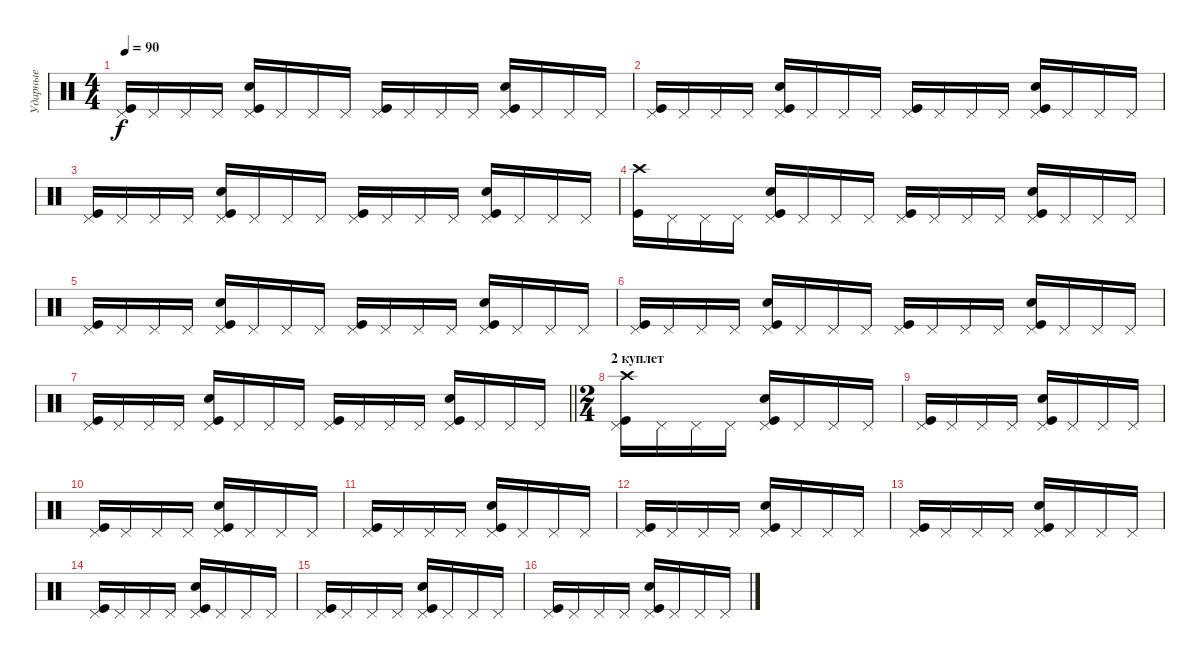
\track ("Ударные" "Ударные") {instrument percussion}
\staff {score}
\articulation defaults
\ts (4 4)
\tempo 90
\clef neutral
\ks c
("Pedal Hi-Hat (hit)" "Kick (hit)").16{dy f} "Pedal Hi-Hat (hit)".16 "Pedal Hi-Hat (hit)".16 "Pedal Hi-Hat (hit)".16 ("Pedal Hi-Hat (hit)" "Kick (hit)" "Snare (hit) 2").16 "Pedal Hi-Hat (hit)".16 "Pedal Hi-Hat (hit)".16 "Pedal Hi-Hat (hit)".16 ("Pedal Hi-Hat (hit)" "Kick (hit)").16 "Pedal Hi-Hat (hit)".16 "Pedal Hi-Hat (hit)".16 "Pedal Hi-Hat (hit)".16 ("Pedal Hi-Hat (hit)" "Kick (hit)" "Snare (hit) 2").16 "Pedal Hi-Hat (hit)".16 "Pedal Hi-Hat (hit)".16 "Pedal Hi-Hat (hit)".16 |
("Pedal Hi-Hat (hit)" "Kick (hit)").16 "Pedal Hi-Hat (hit)".16 "Pedal Hi-Hat (hit)".16 "Pedal Hi-Hat (hit)".16 ("Pedal Hi-Hat (hit)" "Kick (hit)" "Snare (hit) 2").16 "Pedal Hi-Hat (hit)".16 "Pedal Hi-Hat (hit)".16 "Pedal Hi-Hat (hit)".16 ("Pedal Hi-Hat (hit)" "Kick (hit)").16 "Pedal Hi-Hat (hit)".16 "Pedal Hi-Hat (hit)".16 "Pedal Hi-Hat (hit)".16 ("Pedal Hi-Hat (hit)" "Kick (hit)" "Snare (hit) 2").16 "Pedal Hi-Hat (hit)".16 "Pedal Hi-Hat (hit)".16 "Pedal Hi-Hat (hit)".16 |
("Pedal Hi-Hat (hit)" "Kick (hit)").16 "Pedal Hi-Hat (hit)".16 "Pedal Hi-Hat (hit)".16 "Pedal Hi-Hat (hit)".16 ("Pedal Hi-Hat (hit)" "Kick (hit)" "Snare (hit) 2").16 "Pedal Hi-Hat (hit)".16 "Pedal Hi-Hat (hit)".16 "Pedal Hi-Hat (hit)".16 ("Pedal Hi-Hat (hit)" "Kick (hit)").16 "Pedal Hi-Hat (hit)".16 "Pedal Hi-Hat (hit)".16 "Pedal Hi-Hat (hit)".16 ("Pedal Hi-Hat (hit)" "Kick (hit)" "Snare (hit) 2").16 "Pedal Hi-Hat (hit)".16 "Pedal Hi-Hat (hit)".16 "Pedal Hi-Hat (hit)".16 |
("Crash high (hit)" "Kick (hit)").16 "Pedal Hi-Hat (hit)".16 "Pedal Hi-Hat (hit)".16 "Pedal Hi-Hat (hit)".16 ("Pedal Hi-Hat (hit)" "Kick (hit)" "Snare (hit) 2").16 "Pedal Hi-Hat (hit)".16 "Pedal Hi-Hat (hit)".16 "Pedal Hi-Hat (hit)".16 ("Pedal Hi-Hat (hit)" "Kick (hit)").16 "Pedal Hi-Hat (hit)".16 "Pedal Hi-Hat (hit)".16 "Pedal Hi-Hat (hit)".16 ("Pedal Hi-Hat (hit)" "Kick (hit)" "Snare (hit) 2").16 "Pedal Hi-Hat (hit)".16 "Pedal Hi-Hat (hit)".16 "Pedal Hi-Hat (hit)".16 |
("Pedal Hi-Hat (hit)" "Kick (hit)").16 "Pedal Hi-Hat (hit)".16 "Pedal Hi-Hat (hit)".16 "Pedal Hi-Hat (hit)".16 ("Pedal Hi-Hat (hit)" "Kick (hit)" "Snare (hit) 2").16 "Pedal Hi-Hat (hit)".16 "Pedal Hi-Hat (hit)".16 "Pedal Hi-Hat (hit)".16 ("Pedal Hi-Hat (hit)" "Kick (hit)").16 "Pedal Hi-Hat (hit)".16 "Pedal Hi-Hat (hit)".16 "Pedal Hi-Hat (hit)".16 ("Pedal Hi-Hat (hit)" "Kick (hit)" "Snare (hit) 2").16 "Pedal Hi-Hat (hit)".16 "Pedal Hi-Hat (hit)".16 "Pedal Hi-Hat (hit)".16 |
("Pedal Hi-Hat (hit)" "Kick (hit)").16 "Pedal Hi-Hat (hit)".16 "Pedal Hi-Hat (hit)".16 "Pedal Hi-Hat (hit)".16 ("Pedal Hi-Hat (hit)" "Kick (hit)" "Snare (hit) 2").16 "Pedal Hi-Hat (hit)".16 "Pedal Hi-Hat (hit)".16 "Pedal Hi-Hat (hit)".16 ("Pedal Hi-Hat (hit)" "Kick (hit)").16 "Pedal Hi-Hat (hit)".16 "Pedal Hi-Hat (hit)".16 "Pedal Hi-Hat (hit)".16 ("Pedal Hi-Hat (hit)" "Kick (hit)" "Snare (hit) 2").16 "Pedal Hi-Hat (hit)".16 "Pedal Hi-Hat (hit)".16 "Pedal Hi-Hat (hit)".16 |
\barLineRight lightlight
("Pedal Hi-Hat (hit)" "Kick (hit)").16 "Pedal Hi-Hat (hit)".16 "Pedal Hi-Hat (hit)".16 "Pedal Hi-Hat (hit)".16 ("Pedal Hi-Hat (hit)" "Kick (hit)" "Snare (hit) 2").16 "Pedal Hi-Hat (hit)".16 "Pedal Hi-Hat (hit)".16 "Pedal Hi-Hat (hit)".16 ("Pedal Hi-Hat (hit)" "Kick (hit)").16 "Pedal Hi-Hat (hit)".16 "Pedal Hi-Hat (hit)".16 "Pedal Hi-Hat (hit)".16 ("Pedal Hi-Hat (hit)" "Kick (hit)" "Snare (hit) 2").16 "Pedal Hi-Hat (hit)".16 "Pedal Hi-Hat (hit)".16 "Pedal Hi-Hat (hit)".16 |
\ts (2 4)
\section ("" "2 куплет")
("Pedal Hi-Hat (hit)" "Crash high (hit)" "Kick (hit)").16 "Pedal Hi-Hat (hit)".16 "Pedal Hi-Hat (hit)".16 "Pedal Hi-Hat (hit)".16 ("Pedal Hi-Hat (hit)" "Kick (hit)" "Snare (hit) 2").16 "Pedal Hi-Hat (hit)".16 "Pedal Hi-Hat (hit)".16 "Pedal Hi-Hat (hit)".16 |
("Pedal Hi-Hat (hit)" "Kick (hit)").16 "Pedal Hi-Hat (hit)".16 "Pedal Hi-Hat (hit)".16 "Pedal Hi-Hat (hit)".16 ("Pedal Hi-Hat (hit)" "Kick (hit)" "Snare (hit) 2").16 "Pedal Hi-Hat (hit)".16 "Pedal Hi-Hat (hit)".16 "Pedal Hi-Hat (hit)".16 |
("Pedal Hi-Hat (hit)" "Kick (hit)").16 "Pedal Hi-Hat (hit)".16 "Pedal Hi-Hat (hit)".16 "Pedal Hi-Hat (hit)".16 ("Pedal Hi-Hat (hit)" "Kick (hit)" "Snare (hit) 2").16 "Pedal Hi-Hat (hit)".16 "Pedal Hi-Hat (hit)".16 "Pedal Hi-Hat (hit)".16 |
("Pedal Hi-Hat (hit)" "Kick (hit)").16 "Pedal Hi-Hat (hit)".16 "Pedal Hi-Hat (hit)".16 "Pedal Hi-Hat (hit)".16 ("Pedal Hi-Hat (hit)" "Kick (hit)" "Snare (hit) 2").16 "Pedal Hi-Hat (hit)".16 "Pedal Hi-Hat (hit)".16 "Pedal Hi-Hat (hit)".16 |
("Pedal Hi-Hat (hit)" "Kick (hit)").16 "Pedal Hi-Hat (hit)".16 "Pedal Hi-Hat (hit)".16 "Pedal Hi-Hat (hit)".16 ("Pedal Hi-Hat (hit)" "Kick (hit)" "Snare (hit) 2").16 "Pedal Hi-Hat (hit)".16 "Pedal Hi-Hat (hit)".16 "Pedal Hi-Hat (hit)".16 |
("Pedal Hi-Hat (hit)" "Kick (hit)").16 "Pedal Hi-Hat (hit)".16 "Pedal Hi-Hat (hit)".16 "Pedal Hi-Hat (hit)".16 ("Pedal Hi-Hat (hit)" "Kick (hit)" "Snare (hit) 2").16 "Pedal Hi-Hat (hit)".16 "Pedal Hi-Hat (hit)".16 "Pedal Hi-Hat (hit)".16 |
("Pedal Hi-Hat (hit)" "Kick (hit)").16 "Pedal Hi-Hat (hit)".16 "Pedal Hi-Hat (hit)".16 "Pedal Hi-Hat (hit)".16 ("Pedal Hi-Hat (hit)" "Kick (hit)" "Snare (hit) 2").16 "Pedal Hi-Hat (hit)".16 "Pedal Hi-Hat (hit)".16 "Pedal Hi-Hat (hit)".16 |
("Pedal Hi-Hat (hit)" "Kick (hit)").16 "Pedal Hi-Hat (hit)".16 "Pedal Hi-Hat (hit)".16 "Pedal Hi-Hat (hit)".16 ("Pedal Hi-Hat (hit)" "Kick (hit)" "Snare (hit) 2").16 "Pedal Hi-Hat (hit)".16 "Pedal Hi-Hat (hit)".16 "Pedal Hi-Hat (hit)".16 |
("Pedal Hi-Hat (hit)" "Kick (hit)").16 "Pedal Hi-Hat (hit)".16 "Pedal Hi-Hat (hit)".16 "Pedal Hi-Hat (hit)".16 ("Pedal Hi-Hat (hit)" "Kick (hit)" "Snare (hit) 2").16 "Pedal Hi-Hat (hit)".16 "Pedal Hi-Hat (hit)".16 "Pedal Hi-Hat (hit)".16
